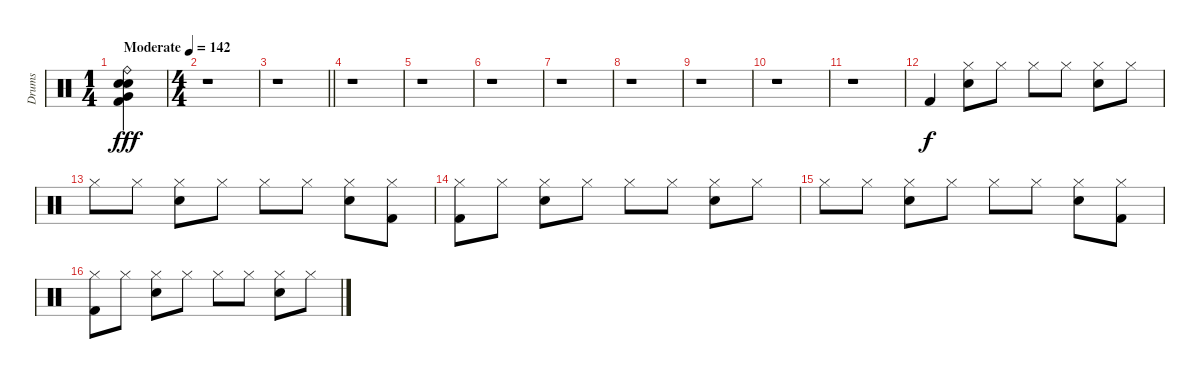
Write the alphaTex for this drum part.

\track ("Drums" "Drums") {instrument percussion}
\staff {score}
\articulation defaults
\ts (1 4)
\tempo (142 "Moderate")
\clef neutral
\ks c
("Ride (bell)" "Electric Snare (hit)" "Snare (hit) 2" "Very Low Tom (hit)" "Kick (hit) 2").4{dy fff} |
\ts (4 4)
r.1 |
\barLineRight lightlight
r.1 |
r.1 |
r.1 |
r.1 |
r.1 |
r.1 |
r.1 |
r.1 |
r.1 |
"Kick (hit) 2".4{dy f} ("Hi-Hat (closed)" "Snare (hit) 2").8 "Hi-Hat (closed)".8 "Hi-Hat (closed)".8 "Hi-Hat (closed)".8 ("Hi-Hat (closed)" "Snare (hit) 2").8 "Hi-Hat (closed)".8 |
"Hi-Hat (closed)".8 "Hi-Hat (closed)".8 ("Hi-Hat (closed)" "Snare (hit) 2").8 "Hi-Hat (closed)".8 "Hi-Hat (closed)".8 "Hi-Hat (closed)".8 ("Hi-Hat (closed)" "Snare (hit) 2").8 ("Hi-Hat (closed)" "Kick (hit) 2").8 |
("Hi-Hat (closed)" "Kick (hit) 2").8 "Hi-Hat (closed)".8 ("Hi-Hat (closed)" "Snare (hit) 2").8 "Hi-Hat (closed)".8 "Hi-Hat (closed)".8 "Hi-Hat (closed)".8 ("Hi-Hat (closed)" "Snare (hit) 2").8 "Hi-Hat (closed)".8 |
"Hi-Hat (closed)".8 "Hi-Hat (closed)".8 ("Hi-Hat (closed)" "Snare (hit) 2").8 "Hi-Hat (closed)".8 "Hi-Hat (closed)".8 "Hi-Hat (closed)".8 ("Hi-Hat (closed)" "Snare (hit) 2").8 ("Hi-Hat (closed)" "Kick (hit) 2").8 |
("Hi-Hat (closed)" "Kick (hit) 2").8 "Hi-Hat (closed)".8 ("Hi-Hat (closed)" "Snare (hit) 2").8 "Hi-Hat (closed)".8 "Hi-Hat (closed)".8 "Hi-Hat (closed)".8 ("Hi-Hat (closed)" "Snare (hit) 2").8 "Hi-Hat (closed)".8
